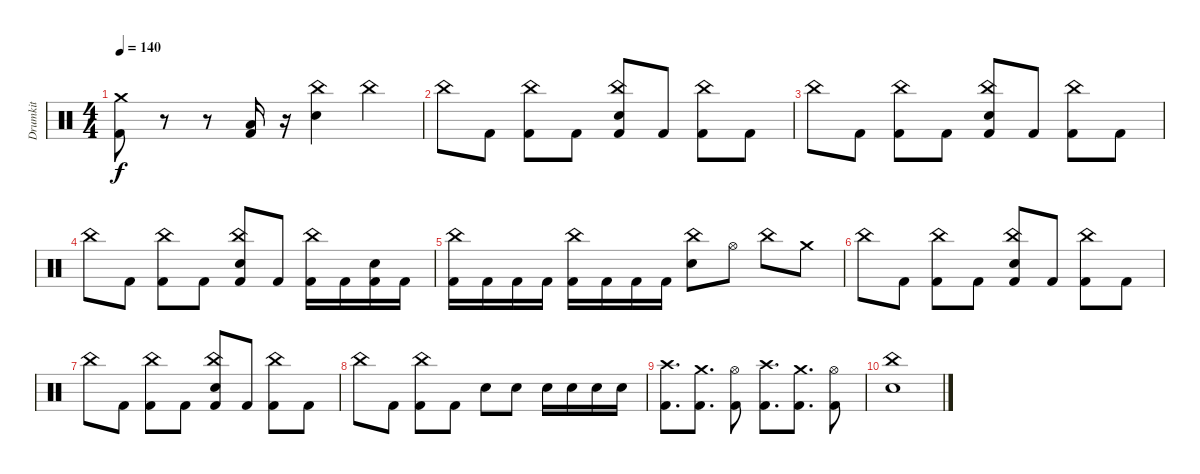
\track ("Drumkit" "Drumkit") {instrument percussion}
\staff {score}
\articulation defaults
\ts (4 4)
\tempo 140
\clef neutral
\ks c
("Crash medium (hit)" "Kick (hit) 2").8{dy f} r.8 r.8 ("Low Floor Tom (hit)" "Kick (hit) 2").16 r.16 ("China (hit)" "Electric Snare (hit)").4 "China (hit)".4 |
"China (hit)".8 "Kick (hit) 2".8 ("China (hit)" "Kick (hit) 2").8 "Kick (hit) 2".8 ("China (hit)" "Electric Snare (hit)" "Kick (hit) 2").8 "Kick (hit) 2".8 ("China (hit)" "Kick (hit) 2").8 "Kick (hit) 2".8 |
"China (hit)".8 "Kick (hit) 2".8 ("China (hit)" "Kick (hit) 2").8 "Kick (hit) 2".8 ("China (hit)" "Electric Snare (hit)" "Kick (hit) 2").8 "Kick (hit) 2".8 ("China (hit)" "Kick (hit) 2").8 "Kick (hit) 2".8 |
"China (hit)".8 "Kick (hit) 2".8 ("China (hit)" "Kick (hit) 2").8 "Kick (hit) 2".8 ("China (hit)" "Electric Snare (hit)" "Kick (hit) 2").8 "Kick (hit) 2".8 ("China (hit)" "Kick (hit) 2").16 "Kick (hit) 2".16 ("Electric Snare (hit)" "Kick (hit) 2").16 "Kick (hit) 2".16 |
("China (hit)" "Kick (hit) 2").16 "Kick (hit) 2".16 "Kick (hit) 2".16 "Kick (hit) 2".16 ("China (hit)" "Kick (hit) 2").16 "Kick (hit) 2".16 "Kick (hit) 2".16 "Kick (hit) 2".16 ("China (hit)" "Electric Snare (hit)").8 "Hi-Hat (open)".8 "China (hit)".8 "Crash medium (hit)".8 |
"China (hit)".8 "Kick (hit) 2".8 ("China (hit)" "Kick (hit) 2").8 "Kick (hit) 2".8 ("China (hit)" "Electric Snare (hit)" "Kick (hit) 2").8 "Kick (hit) 2".8 ("China (hit)" "Kick (hit) 2").8 "Kick (hit) 2".8 |
"China (hit)".8 "Kick (hit) 2".8 ("China (hit)" "Kick (hit) 2").8 "Kick (hit) 2".8 ("China (hit)" "Electric Snare (hit)" "Kick (hit) 2").8 "Kick (hit) 2".8 ("China (hit)" "Kick (hit) 2").8 "Kick (hit) 2".8 |
"China (hit)".8 "Kick (hit) 2".8 ("China (hit)" "Kick (hit) 2").8 "Kick (hit) 2".8 "Electric Snare (hit)".8 "Electric Snare (hit)".8 "Electric Snare (hit)".16 "Electric Snare (hit)".16 "Electric Snare (hit)".16 "Electric Snare (hit)".16 |
("Crash high (hit)" "Kick (hit) 2").8{d} ("Crash medium (hit)" "Kick (hit) 2").8{d} ("Hi-Hat (open)" "Kick (hit) 2").8 ("Crash high (hit)" "Kick (hit) 2").8{d} ("Crash medium (hit)" "Kick (hit) 2").8{d} ("Hi-Hat (open)" "Kick (hit) 2").8 |
("China (hit)" "Electric Snare (hit)").1
